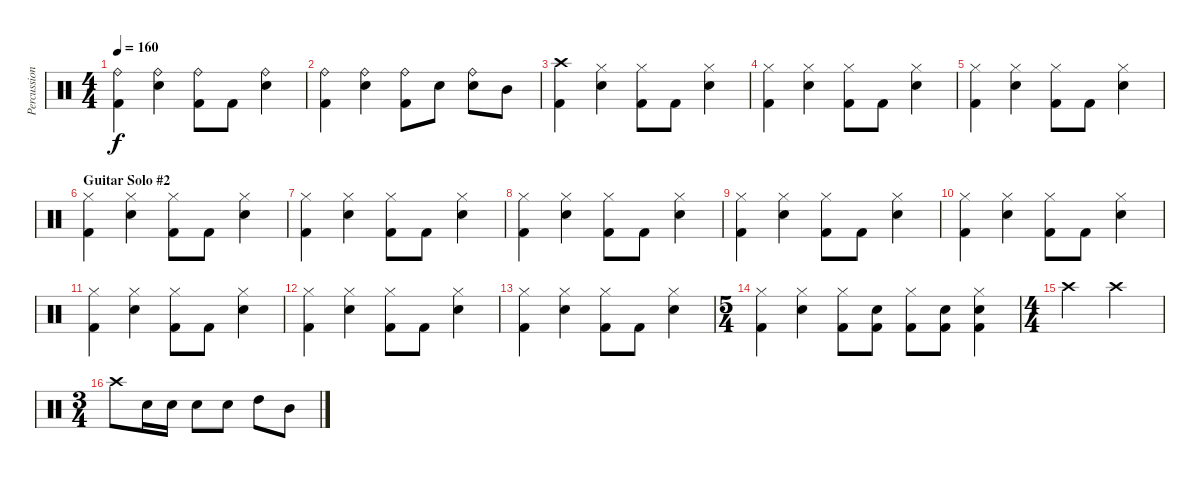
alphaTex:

\track ("Percussion" "Percussion") {instrument percussion}
\staff {score}
\articulation defaults
\ts (4 4)
\tempo 160
\clef neutral
\ks c
("Ride (bell)" "Kick (hit) 2").4{dy f} ("Ride (bell)" "Electric Snare (hit)").4 ("Ride (bell)" "Kick (hit) 2").8 "Kick (hit) 2".8 ("Ride (bell)" "Electric Snare (hit)").4 |
("Ride (bell)" "Kick (hit) 2").4 ("Ride (bell)" "Electric Snare (hit)").4 ("Ride (bell)" "Kick (hit) 2").8 "Electric Snare (hit)".8 ("Ride (bell)" "Electric Snare (hit)").8 "Mid Tom (hit)".8 |
("Crash high (hit)" "Kick (hit) 2").4 ("Hi-Hat (closed)" "Electric Snare (hit)").4 ("Hi-Hat (closed)" "Kick (hit) 2").8 "Kick (hit) 2".8 ("Hi-Hat (closed)" "Electric Snare (hit)").4 |
("Hi-Hat (closed)" "Kick (hit) 2").4 ("Hi-Hat (closed)" "Electric Snare (hit)").4 ("Hi-Hat (closed)" "Kick (hit) 2").8 "Kick (hit) 2".8 ("Hi-Hat (closed)" "Electric Snare (hit)").4 |
("Hi-Hat (closed)" "Kick (hit) 2").4 ("Hi-Hat (closed)" "Electric Snare (hit)").4 ("Hi-Hat (closed)" "Kick (hit) 2").8 "Kick (hit) 2".8 ("Hi-Hat (closed)" "Electric Snare (hit)").4 |
\section ("" "Guitar Solo #2")
("Hi-Hat (closed)" "Kick (hit) 2").4 ("Hi-Hat (closed)" "Electric Snare (hit)").4 ("Hi-Hat (closed)" "Kick (hit) 2").8 "Kick (hit) 2".8 ("Hi-Hat (closed)" "Electric Snare (hit)").4 |
("Hi-Hat (closed)" "Kick (hit) 2").4 ("Hi-Hat (closed)" "Electric Snare (hit)").4 ("Hi-Hat (closed)" "Kick (hit) 2").8 "Kick (hit) 2".8 ("Hi-Hat (closed)" "Electric Snare (hit)").4 |
("Hi-Hat (closed)" "Kick (hit) 2").4 ("Hi-Hat (closed)" "Electric Snare (hit)").4 ("Hi-Hat (closed)" "Kick (hit) 2").8 "Kick (hit) 2".8 ("Hi-Hat (closed)" "Electric Snare (hit)").4 |
("Hi-Hat (closed)" "Kick (hit) 2").4 ("Hi-Hat (closed)" "Electric Snare (hit)").4 ("Hi-Hat (closed)" "Kick (hit) 2").8 "Kick (hit) 2".8 ("Hi-Hat (closed)" "Electric Snare (hit)").4 |
("Hi-Hat (closed)" "Kick (hit) 2").4 ("Hi-Hat (closed)" "Electric Snare (hit)").4 ("Hi-Hat (closed)" "Kick (hit) 2").8 "Kick (hit) 2".8 ("Hi-Hat (closed)" "Electric Snare (hit)").4 |
("Hi-Hat (closed)" "Kick (hit) 2").4 ("Hi-Hat (closed)" "Electric Snare (hit)").4 ("Hi-Hat (closed)" "Kick (hit) 2").8 "Kick (hit) 2".8 ("Hi-Hat (closed)" "Electric Snare (hit)").4 |
("Hi-Hat (closed)" "Kick (hit) 2").4 ("Hi-Hat (closed)" "Electric Snare (hit)").4 ("Hi-Hat (closed)" "Kick (hit) 2").8 "Kick (hit) 2".8 ("Hi-Hat (closed)" "Electric Snare (hit)").4 |
("Hi-Hat (closed)" "Kick (hit) 2").4 ("Hi-Hat (closed)" "Electric Snare (hit)").4 ("Hi-Hat (closed)" "Kick (hit) 2").8 "Kick (hit) 2".8 ("Hi-Hat (closed)" "Electric Snare (hit)").4 |
\ts (5 4)
("Hi-Hat (closed)" "Kick (hit) 2").4 ("Hi-Hat (closed)" "Electric Snare (hit)").4 ("Hi-Hat (closed)" "Kick (hit) 2").8 ("Electric Snare (hit)" "Kick (hit) 2").8 ("Hi-Hat (closed)" "Kick (hit) 2").8 ("Electric Snare (hit)" "Kick (hit) 2").8 ("Hi-Hat (closed)" "Electric Snare (hit)" "Kick (hit) 2").4 |
\ts (4 4)
"Crash high (hit)".2 "Crash high (hit)".2 |
\ts (3 4)
"Crash high (hit)".8 "Electric Snare (hit)".16 "Electric Snare (hit)".16 "Electric Snare (hit)".8 "Electric Snare (hit)".8 "High Tom (hit)".8 "Mid Tom (hit)".8
